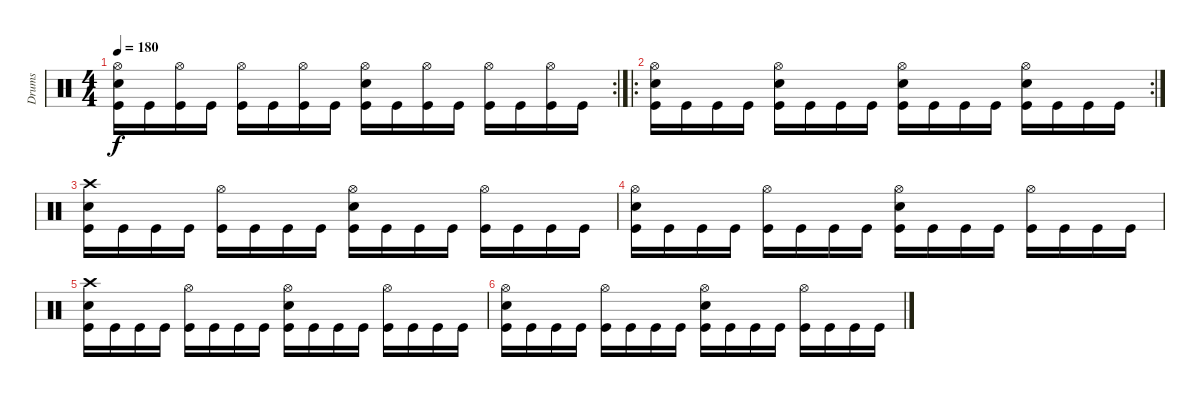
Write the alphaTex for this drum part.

\track ("Drums" "Drums") {instrument percussion}
\staff {score}
\articulation defaults
\rc 2
\ts (4 4)
\tempo 180
\clef neutral
\ks c
("Hi-Hat (open)" "Snare (hit) 2" "Kick (hit)").16{dy f} "Kick (hit)".16 ("Hi-Hat (open)" "Kick (hit)").16 "Kick (hit)".16 ("Hi-Hat (open)" "Kick (hit)").16 "Kick (hit)".16 ("Hi-Hat (open)" "Kick (hit)").16 "Kick (hit)".16 ("Hi-Hat (open)" "Snare (hit) 2" "Kick (hit)").16 "Kick (hit)".16 ("Hi-Hat (open)" "Kick (hit)").16 "Kick (hit)".16 ("Hi-Hat (open)" "Kick (hit)").16 "Kick (hit)".16 ("Hi-Hat (open)" "Kick (hit)").16 "Kick (hit)".16 |
\ro
\rc 2
("Hi-Hat (open)" "Snare (hit) 2" "Kick (hit)").16 "Kick (hit)".16 "Kick (hit)".16 "Kick (hit)".16 ("Hi-Hat (open)" "Snare (hit) 2" "Kick (hit)").16 "Kick (hit)".16 "Kick (hit)".16 "Kick (hit)".16 ("Hi-Hat (open)" "Snare (hit) 2" "Kick (hit)").16 "Kick (hit)".16 "Kick (hit)".16 "Kick (hit)".16 ("Hi-Hat (open)" "Snare (hit) 2" "Kick (hit)").16 "Kick (hit)".16 "Kick (hit)".16 "Kick (hit)".16 |
("Crash high (hit)" "Snare (hit) 2" "Kick (hit)").16 "Kick (hit)".16 "Kick (hit)".16 "Kick (hit)".16 ("Hi-Hat (open)" "Kick (hit)").16 "Kick (hit)".16 "Kick (hit)".16 "Kick (hit)".16 ("Hi-Hat (open)" "Snare (hit) 2" "Kick (hit)").16 "Kick (hit)".16 "Kick (hit)".16 "Kick (hit)".16 ("Hi-Hat (open)" "Kick (hit)").16 "Kick (hit)".16 "Kick (hit)".16 "Kick (hit)".16 |
("Hi-Hat (open)" "Snare (hit) 2" "Kick (hit)").16 "Kick (hit)".16 "Kick (hit)".16 "Kick (hit)".16 ("Hi-Hat (open)" "Kick (hit)").16 "Kick (hit)".16 "Kick (hit)".16 "Kick (hit)".16 ("Hi-Hat (open)" "Snare (hit) 2" "Kick (hit)").16 "Kick (hit)".16 "Kick (hit)".16 "Kick (hit)".16 ("Hi-Hat (open)" "Kick (hit)").16 "Kick (hit)".16 "Kick (hit)".16 "Kick (hit)".16 |
("Crash high (hit)" "Snare (hit) 2" "Kick (hit)").16 "Kick (hit)".16 "Kick (hit)".16 "Kick (hit)".16 ("Hi-Hat (open)" "Kick (hit)").16 "Kick (hit)".16 "Kick (hit)".16 "Kick (hit)".16 ("Hi-Hat (open)" "Snare (hit) 2" "Kick (hit)").16 "Kick (hit)".16 "Kick (hit)".16 "Kick (hit)".16 ("Hi-Hat (open)" "Kick (hit)").16 "Kick (hit)".16 "Kick (hit)".16 "Kick (hit)".16 |
("Hi-Hat (open)" "Snare (hit) 2" "Kick (hit)").16 "Kick (hit)".16 "Kick (hit)".16 "Kick (hit)".16 ("Hi-Hat (open)" "Kick (hit)").16 "Kick (hit)".16 "Kick (hit)".16 "Kick (hit)".16 ("Hi-Hat (open)" "Snare (hit) 2" "Kick (hit)").16 "Kick (hit)".16 "Kick (hit)".16 "Kick (hit)".16 ("Hi-Hat (open)" "Kick (hit)").16 "Kick (hit)".16 "Kick (hit)".16 "Kick (hit)".16
